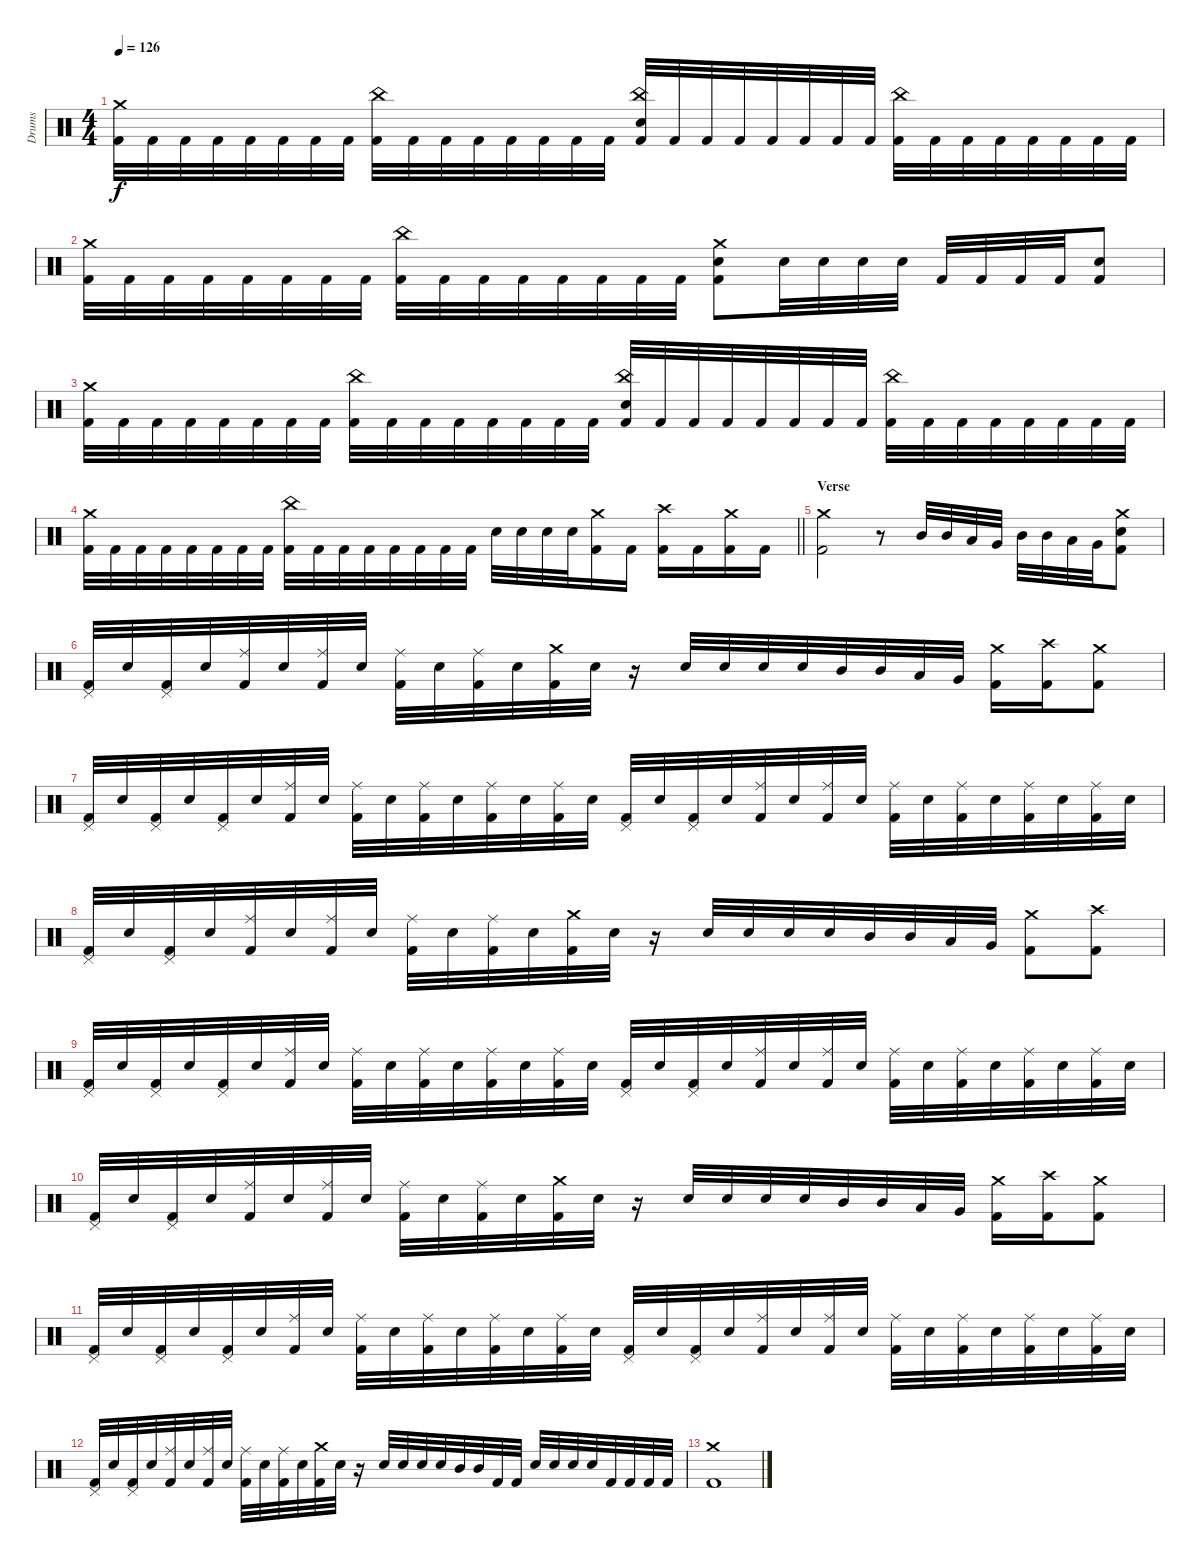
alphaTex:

\track ("Drums" "Drums") {instrument percussion}
\staff {score}
\articulation defaults
\ts (4 4)
\tempo 126
\clef neutral
\ks c
("Crash medium (hit)" "Kick (hit) 2").32{dy f} "Kick (hit) 2".32 "Kick (hit) 2".32 "Kick (hit) 2".32 "Kick (hit) 2".32 "Kick (hit) 2".32 "Kick (hit) 2".32 "Kick (hit) 2".32 ("China (hit)" "Kick (hit) 2").32 "Kick (hit) 2".32 "Kick (hit) 2".32 "Kick (hit) 2".32 "Kick (hit) 2".32 "Kick (hit) 2".32 "Kick (hit) 2".32 "Kick (hit) 2".32 ("China (hit)" "Electric Snare (hit)" "Kick (hit) 2").32 "Kick (hit) 2".32 "Kick (hit) 2".32 "Kick (hit) 2".32 "Kick (hit) 2".32 "Kick (hit) 2".32 "Kick (hit) 2".32 "Kick (hit) 2".32 ("China (hit)" "Kick (hit) 2").32 "Kick (hit) 2".32 "Kick (hit) 2".32 "Kick (hit) 2".32 "Kick (hit) 2".32 "Kick (hit) 2".32 "Kick (hit) 2".32 "Kick (hit) 2".32 |
("Crash medium (hit)" "Kick (hit) 2").32 "Kick (hit) 2".32 "Kick (hit) 2".32 "Kick (hit) 2".32 "Kick (hit) 2".32 "Kick (hit) 2".32 "Kick (hit) 2".32 "Kick (hit) 2".32 ("China (hit)" "Kick (hit) 2").32 "Kick (hit) 2".32 "Kick (hit) 2".32 "Kick (hit) 2".32 "Kick (hit) 2".32 "Kick (hit) 2".32 "Kick (hit) 2".32 "Kick (hit) 2".32 ("Crash medium (hit)" "Electric Snare (hit)" "Kick (hit) 2").8 "Electric Snare (hit)".32 "Electric Snare (hit)".32 "Electric Snare (hit)".32 "Electric Snare (hit)".32 "Kick (hit) 2".32 "Kick (hit) 2".32 "Kick (hit) 2".32 "Kick (hit) 2".32 ("Electric Snare (hit)" "Kick (hit) 2").8 |
("Crash medium (hit)" "Kick (hit) 2").32 "Kick (hit) 2".32 "Kick (hit) 2".32 "Kick (hit) 2".32 "Kick (hit) 2".32 "Kick (hit) 2".32 "Kick (hit) 2".32 "Kick (hit) 2".32 ("China (hit)" "Kick (hit) 2").32 "Kick (hit) 2".32 "Kick (hit) 2".32 "Kick (hit) 2".32 "Kick (hit) 2".32 "Kick (hit) 2".32 "Kick (hit) 2".32 "Kick (hit) 2".32 ("China (hit)" "Electric Snare (hit)" "Kick (hit) 2").32 "Kick (hit) 2".32 "Kick (hit) 2".32 "Kick (hit) 2".32 "Kick (hit) 2".32 "Kick (hit) 2".32 "Kick (hit) 2".32 "Kick (hit) 2".32 ("China (hit)" "Kick (hit) 2").32 "Kick (hit) 2".32 "Kick (hit) 2".32 "Kick (hit) 2".32 "Kick (hit) 2".32 "Kick (hit) 2".32 "Kick (hit) 2".32 "Kick (hit) 2".32 |
\barLineRight lightlight
("Crash medium (hit)" "Kick (hit) 2").32 "Kick (hit) 2".32 "Kick (hit) 2".32 "Kick (hit) 2".32 "Kick (hit) 2".32 "Kick (hit) 2".32 "Kick (hit) 2".32 "Kick (hit) 2".32 ("China (hit)" "Kick (hit) 2").32 "Kick (hit) 2".32 "Kick (hit) 2".32 "Kick (hit) 2".32 "Kick (hit) 2".32 "Kick (hit) 2".32 "Kick (hit) 2".32 "Kick (hit) 2".32 "Electric Snare (hit)".32 "Electric Snare (hit)".32 "Electric Snare (hit)".32 "Electric Snare (hit)".32 ("Crash medium (hit)" "Kick (hit) 2").16 "Kick (hit) 2".16 ("Crash high (hit)" "Kick (hit) 2").16 "Kick (hit) 2".16 ("Crash medium (hit)" "Kick (hit) 2").16 "Kick (hit) 2".16 |
\section ("" "Verse")
("Crash medium (hit)" "Kick (hit) 2").2 r.8 "Mid Tom (hit)".32 "Mid Tom (hit)".32 "Low Tom (hit)".32 "Very Low Tom (hit)".32 "Mid Tom (hit)".32 "Mid Tom (hit)".32 "Low Tom (hit)".32 "Very Low Tom (hit)".32 ("Crash medium (hit)" "Electric Snare (hit)" "Kick (hit) 2").8 |
("Pedal Hi-Hat (hit)" "Kick (hit) 2").32 "Electric Snare (hit)".32 ("Pedal Hi-Hat (hit)" "Kick (hit) 2").32 "Electric Snare (hit)".32 ("Ride (middle)" "Kick (hit) 2").32 "Electric Snare (hit)".32 ("Ride (middle)" "Kick (hit) 2").32 "Electric Snare (hit)".32 ("Ride (middle)" "Kick (hit) 2").32 "Electric Snare (hit)".32 ("Ride (middle)" "Kick (hit) 2").32 "Electric Snare (hit)".32 ("Crash medium (hit)" "Kick (hit) 2").32 "Electric Snare (hit)".32 r.16 "Electric Snare (hit)".32 "Electric Snare (hit)".32 "Electric Snare (hit)".32 "Electric Snare (hit)".32 "Mid Tom (hit)".32 "Mid Tom (hit)".32 "Low Tom (hit)".32 "Very Low Tom (hit)".32 ("Crash medium (hit)" "Kick (hit) 2").16 ("Crash high (hit)" "Kick (hit) 2").16 ("Crash medium (hit)" "Kick (hit) 2").8 |
("Pedal Hi-Hat (hit)" "Kick (hit) 2").32 "Electric Snare (hit)".32 ("Pedal Hi-Hat (hit)" "Kick (hit) 2").32 "Electric Snare (hit)".32 ("Pedal Hi-Hat (hit)" "Kick (hit) 2").32 "Electric Snare (hit)".32 ("Ride (middle)" "Kick (hit) 2").32 "Electric Snare (hit)".32 ("Ride (middle)" "Kick (hit) 2").32 "Electric Snare (hit)".32 ("Ride (middle)" "Kick (hit) 2").32 "Electric Snare (hit)".32 ("Ride (middle)" "Kick (hit) 2").32 "Electric Snare (hit)".32 ("Ride (middle)" "Kick (hit) 2").32 "Electric Snare (hit)".32 ("Pedal Hi-Hat (hit)" "Kick (hit) 2").32 "Electric Snare (hit)".32 ("Pedal Hi-Hat (hit)" "Kick (hit) 2").32 "Electric Snare (hit)".32 ("Ride (middle)" "Kick (hit) 2").32 "Electric Snare (hit)".32 ("Ride (middle)" "Kick (hit) 2").32 "Electric Snare (hit)".32 ("Ride (middle)" "Kick (hit) 2").32 "Electric Snare (hit)".32 ("Ride (middle)" "Kick (hit) 2").32 "Electric Snare (hit)".32 ("Ride (middle)" "Kick (hit) 2").32 "Electric Snare (hit)".32 ("Ride (middle)" "Kick (hit) 2").32 "Electric Snare (hit)".32 |
("Pedal Hi-Hat (hit)" "Kick (hit) 2").32 "Electric Snare (hit)".32 ("Pedal Hi-Hat (hit)" "Kick (hit) 2").32 "Electric Snare (hit)".32 ("Ride (middle)" "Kick (hit) 2").32 "Electric Snare (hit)".32 ("Ride (middle)" "Kick (hit) 2").32 "Electric Snare (hit)".32 ("Ride (middle)" "Kick (hit) 2").32 "Electric Snare (hit)".32 ("Ride (middle)" "Kick (hit) 2").32 "Electric Snare (hit)".32 ("Crash medium (hit)" "Kick (hit) 2").32 "Electric Snare (hit)".32 r.16 "Electric Snare (hit)".32 "Electric Snare (hit)".32 "Electric Snare (hit)".32 "Electric Snare (hit)".32 "Mid Tom (hit)".32 "Mid Tom (hit)".32 "Low Tom (hit)".32 "Very Low Tom (hit)".32 ("Crash medium (hit)" "Kick (hit) 2").8 ("Crash high (hit)" "Kick (hit) 2").8 |
("Pedal Hi-Hat (hit)" "Kick (hit) 2").32 "Electric Snare (hit)".32 ("Pedal Hi-Hat (hit)" "Kick (hit) 2").32 "Electric Snare (hit)".32 ("Pedal Hi-Hat (hit)" "Kick (hit) 2").32 "Electric Snare (hit)".32 ("Ride (middle)" "Kick (hit) 2").32 "Electric Snare (hit)".32 ("Ride (middle)" "Kick (hit) 2").32 "Electric Snare (hit)".32 ("Ride (middle)" "Kick (hit) 2").32 "Electric Snare (hit)".32 ("Ride (middle)" "Kick (hit) 2").32 "Electric Snare (hit)".32 ("Ride (middle)" "Kick (hit) 2").32 "Electric Snare (hit)".32 ("Pedal Hi-Hat (hit)" "Kick (hit) 2").32 "Electric Snare (hit)".32 ("Pedal Hi-Hat (hit)" "Kick (hit) 2").32 "Electric Snare (hit)".32 ("Ride (middle)" "Kick (hit) 2").32 "Electric Snare (hit)".32 ("Ride (middle)" "Kick (hit) 2").32 "Electric Snare (hit)".32 ("Ride (middle)" "Kick (hit) 2").32 "Electric Snare (hit)".32 ("Ride (middle)" "Kick (hit) 2").32 "Electric Snare (hit)".32 ("Ride (middle)" "Kick (hit) 2").32 "Electric Snare (hit)".32 ("Ride (middle)" "Kick (hit) 2").32 "Electric Snare (hit)".32 |
("Pedal Hi-Hat (hit)" "Kick (hit) 2").32 "Electric Snare (hit)".32 ("Pedal Hi-Hat (hit)" "Kick (hit) 2").32 "Electric Snare (hit)".32 ("Ride (middle)" "Kick (hit) 2").32 "Electric Snare (hit)".32 ("Ride (middle)" "Kick (hit) 2").32 "Electric Snare (hit)".32 ("Ride (middle)" "Kick (hit) 2").32 "Electric Snare (hit)".32 ("Ride (middle)" "Kick (hit) 2").32 "Electric Snare (hit)".32 ("Crash medium (hit)" "Kick (hit) 2").32 "Electric Snare (hit)".32 r.16 "Electric Snare (hit)".32 "Electric Snare (hit)".32 "Electric Snare (hit)".32 "Electric Snare (hit)".32 "Mid Tom (hit)".32 "Mid Tom (hit)".32 "Low Tom (hit)".32 "Very Low Tom (hit)".32 ("Crash medium (hit)" "Kick (hit) 2").16 ("Crash high (hit)" "Kick (hit) 2").16 ("Crash medium (hit)" "Kick (hit) 2").8 |
("Pedal Hi-Hat (hit)" "Kick (hit) 2").32 "Electric Snare (hit)".32 ("Pedal Hi-Hat (hit)" "Kick (hit) 2").32 "Electric Snare (hit)".32 ("Pedal Hi-Hat (hit)" "Kick (hit) 2").32 "Electric Snare (hit)".32 ("Ride (middle)" "Kick (hit) 2").32 "Electric Snare (hit)".32 ("Ride (middle)" "Kick (hit) 2").32 "Electric Snare (hit)".32 ("Ride (middle)" "Kick (hit) 2").32 "Electric Snare (hit)".32 ("Ride (middle)" "Kick (hit) 2").32 "Electric Snare (hit)".32 ("Ride (middle)" "Kick (hit) 2").32 "Electric Snare (hit)".32 ("Pedal Hi-Hat (hit)" "Kick (hit) 2").32 "Electric Snare (hit)".32 ("Pedal Hi-Hat (hit)" "Kick (hit) 2").32 "Electric Snare (hit)".32 ("Ride (middle)" "Kick (hit) 2").32 "Electric Snare (hit)".32 ("Ride (middle)" "Kick (hit) 2").32 "Electric Snare (hit)".32 ("Ride (middle)" "Kick (hit) 2").32 "Electric Snare (hit)".32 ("Ride (middle)" "Kick (hit) 2").32 "Electric Snare (hit)".32 ("Ride (middle)" "Kick (hit) 2").32 "Electric Snare (hit)".32 ("Ride (middle)" "Kick (hit) 2").32 "Electric Snare (hit)".32 |
("Pedal Hi-Hat (hit)" "Kick (hit) 2").32 "Electric Snare (hit)".32 ("Pedal Hi-Hat (hit)" "Kick (hit) 2").32 "Electric Snare (hit)".32 ("Ride (middle)" "Kick (hit) 2").32 "Electric Snare (hit)".32 ("Ride (middle)" "Kick (hit) 2").32 "Electric Snare (hit)".32 ("Ride (middle)" "Kick (hit) 2").32 "Electric Snare (hit)".32 ("Ride (middle)" "Kick (hit) 2").32 "Electric Snare (hit)".32 ("Crash medium (hit)" "Kick (hit) 2").32 "Electric Snare (hit)".32 r.16 "Electric Snare (hit)".32 "Electric Snare (hit)".32 "Electric Snare (hit)".32 "Electric Snare (hit)".32 "Mid Tom (hit)".32 "Mid Tom (hit)".32 "Kick (hit) 2".32 "Kick (hit) 2".32 "Electric Snare (hit)".32 "Electric Snare (hit)".32 "Electric Snare (hit)".32 "Electric Snare (hit)".32 "Kick (hit) 2".32 "Kick (hit) 2".32 "Kick (hit) 2".32 "Kick (hit) 2".32 |
("Crash medium (hit)" "Kick (hit) 2").1
